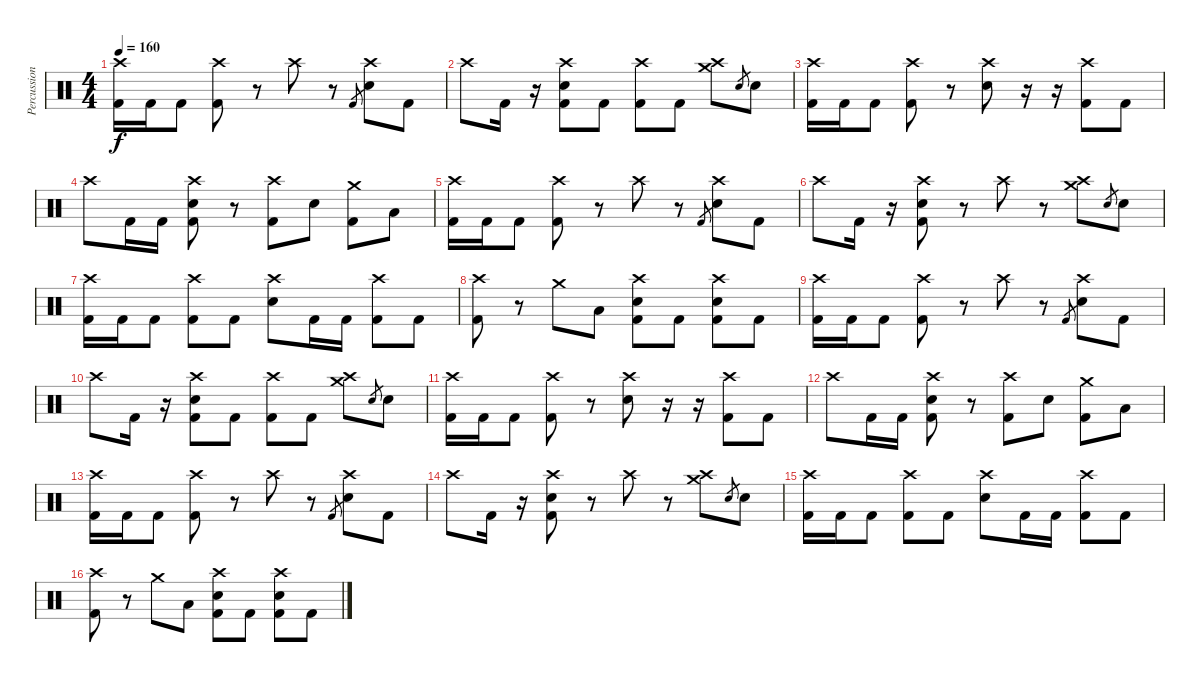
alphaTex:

\track ("Percussion" "Percussion") {instrument percussion}
\staff {score}
\articulation defaults
\ts (4 4)
\tempo 160
\clef neutral
\ks c
("Crash high (hit)" "Kick (hit) 2").16{dy f} "Kick (hit) 2".16 "Kick (hit) 2".8 ("Crash high (hit)" "Kick (hit) 2").8 r.8 "Crash high (hit)".8 r.8 "Kick (hit) 2".8{gr} ("Crash high (hit)" "Electric Snare (hit)").8 "Kick (hit) 2".8 |
"Crash high (hit)".8 "Kick (hit) 2".16 r.16 ("Crash high (hit)" "Electric Snare (hit)" "Kick (hit) 2").8 "Kick (hit) 2".8 ("Crash high (hit)" "Kick (hit) 2").8 "Kick (hit) 2".8 ("Crash medium (hit)" "Crash high (hit)").8 "Electric Snare (hit)".8{gr} "Electric Snare (hit)".8 |
("Crash high (hit)" "Kick (hit) 2").16 "Kick (hit) 2".16 "Kick (hit) 2".8 ("Crash high (hit)" "Kick (hit) 2").8 r.8 ("Crash high (hit)" "Electric Snare (hit)").8 r.16 r.16 ("Crash high (hit)" "Kick (hit) 2").8 "Kick (hit) 2".8 |
"Crash high (hit)".8 "Kick (hit) 2".16 "Kick (hit) 2".16 ("Crash high (hit)" "Electric Snare (hit)" "Kick (hit) 2").8 r.8 ("Crash high (hit)" "Kick (hit) 2").8 "Electric Snare (hit)".8 ("Crash medium (hit)" "Kick (hit) 2").8 "Low Tom (hit)".8 |
("Crash high (hit)" "Kick (hit) 2").16 "Kick (hit) 2".16 "Kick (hit) 2".8 ("Crash high (hit)" "Kick (hit) 2").8 r.8 "Crash high (hit)".8 r.8 "Kick (hit) 2".8{gr} ("Crash high (hit)" "Electric Snare (hit)").8 "Kick (hit) 2".8 |
"Crash high (hit)".8 "Kick (hit) 2".16 r.16 ("Crash high (hit)" "Electric Snare (hit)" "Kick (hit) 2").8 r.8 "Crash high (hit)".8 r.8 ("Crash medium (hit)" "Crash high (hit)").8 "Electric Snare (hit)".8{gr} "Electric Snare (hit)".8 |
("Crash high (hit)" "Kick (hit) 2").16 "Kick (hit) 2".16 "Kick (hit) 2".8 ("Crash high (hit)" "Kick (hit) 2").8 "Kick (hit) 2".8 ("Crash high (hit)" "Electric Snare (hit)").8 "Kick (hit) 2".16 "Kick (hit) 2".16 ("Crash high (hit)" "Kick (hit) 2").8 "Kick (hit) 2".8 |
("Crash high (hit)" "Kick (hit) 2").8 r.8 "Crash medium (hit)".8 "Low Tom (hit)".8 ("Crash high (hit)" "Electric Snare (hit)" "Kick (hit) 2").8 "Kick (hit) 2".8 ("Crash high (hit)" "Electric Snare (hit)" "Kick (hit) 2").8 "Kick (hit) 2".8 |
("Crash high (hit)" "Kick (hit) 2").16 "Kick (hit) 2".16 "Kick (hit) 2".8 ("Crash high (hit)" "Kick (hit) 2").8 r.8 "Crash high (hit)".8 r.8 "Kick (hit) 2".8{gr} ("Crash high (hit)" "Electric Snare (hit)").8 "Kick (hit) 2".8 |
"Crash high (hit)".8 "Kick (hit) 2".16 r.16 ("Crash high (hit)" "Electric Snare (hit)" "Kick (hit) 2").8 "Kick (hit) 2".8 ("Crash high (hit)" "Kick (hit) 2").8 "Kick (hit) 2".8 ("Crash medium (hit)" "Crash high (hit)").8 "Electric Snare (hit)".8{gr} "Electric Snare (hit)".8 |
("Crash high (hit)" "Kick (hit) 2").16 "Kick (hit) 2".16 "Kick (hit) 2".8 ("Crash high (hit)" "Kick (hit) 2").8 r.8 ("Crash high (hit)" "Electric Snare (hit)").8 r.16 r.16 ("Crash high (hit)" "Kick (hit) 2").8 "Kick (hit) 2".8 |
"Crash high (hit)".8 "Kick (hit) 2".16 "Kick (hit) 2".16 ("Crash high (hit)" "Electric Snare (hit)" "Kick (hit) 2").8 r.8 ("Crash high (hit)" "Kick (hit) 2").8 "Electric Snare (hit)".8 ("Crash medium (hit)" "Kick (hit) 2").8 "Low Tom (hit)".8 |
("Crash high (hit)" "Kick (hit) 2").16 "Kick (hit) 2".16 "Kick (hit) 2".8 ("Crash high (hit)" "Kick (hit) 2").8 r.8 "Crash high (hit)".8 r.8 "Kick (hit) 2".8{gr} ("Crash high (hit)" "Electric Snare (hit)").8 "Kick (hit) 2".8 |
"Crash high (hit)".8 "Kick (hit) 2".16 r.16 ("Crash high (hit)" "Electric Snare (hit)" "Kick (hit) 2").8 r.8 "Crash high (hit)".8 r.8 ("Crash medium (hit)" "Crash high (hit)").8 "Electric Snare (hit)".8{gr} "Electric Snare (hit)".8 |
("Crash high (hit)" "Kick (hit) 2").16 "Kick (hit) 2".16 "Kick (hit) 2".8 ("Crash high (hit)" "Kick (hit) 2").8 "Kick (hit) 2".8 ("Crash high (hit)" "Electric Snare (hit)").8 "Kick (hit) 2".16 "Kick (hit) 2".16 ("Crash high (hit)" "Kick (hit) 2").8 "Kick (hit) 2".8 |
("Crash high (hit)" "Kick (hit) 2").8 r.8 "Crash medium (hit)".8 "Low Tom (hit)".8 ("Crash high (hit)" "Electric Snare (hit)" "Kick (hit) 2").8 "Kick (hit) 2".8 ("Crash high (hit)" "Electric Snare (hit)" "Kick (hit) 2").8 "Kick (hit) 2".8
